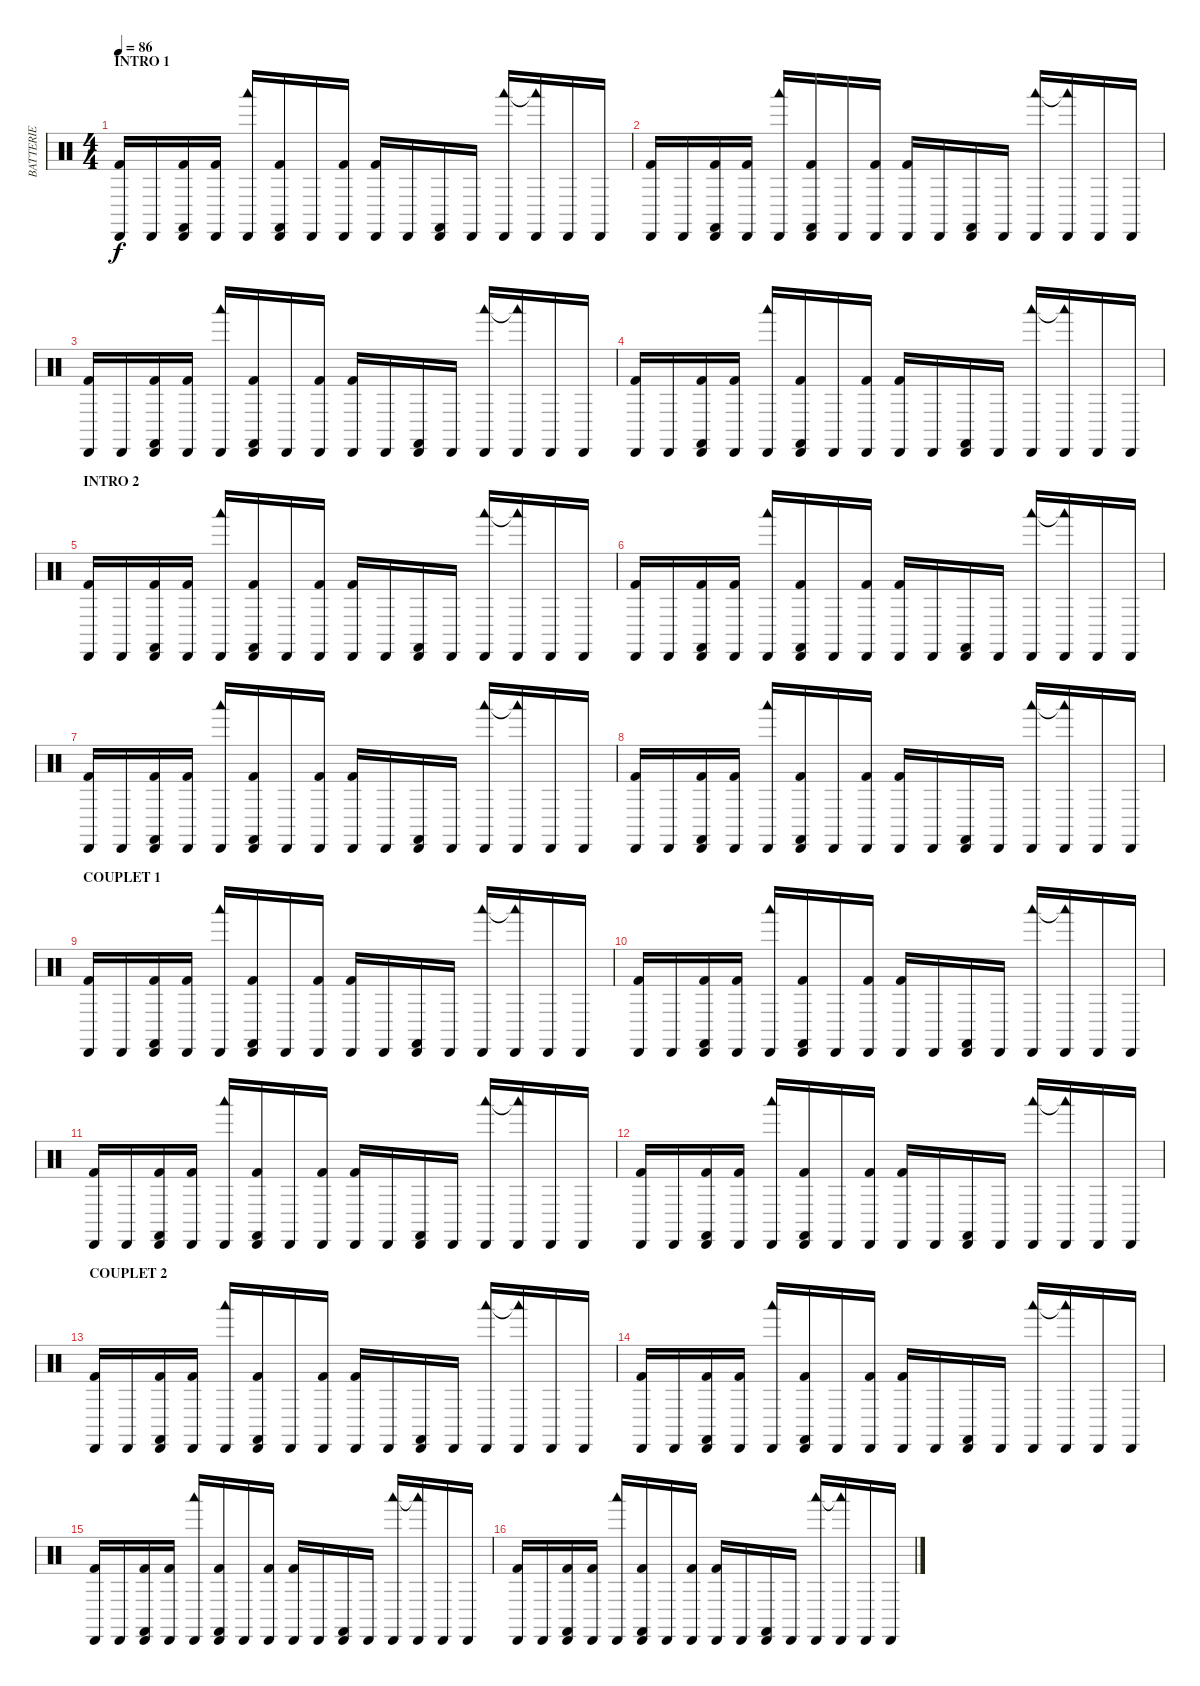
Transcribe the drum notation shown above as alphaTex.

\track ("BATTERIE" "BATTERIE") {instrument percussion}
\staff {score}
\articulation defaults
\ts (4 4)
\section ("" "INTRO 1")
\tempo 86
\clef neutral
\ks c
("Cabasa (hit)" "Kick (hit) 2").16{dy f} "Cabasa (hit)".16 ("Cabasa (hit)" "Castanets (hit)" "Kick (hit) 2").16 ("Cabasa (hit)" "Kick (hit) 2").16 ("Cabasa (hit)" "Woodblock low (hit)").16 ("Cabasa (hit)" "Castanets (hit)" "Kick (hit) 2").16 "Cabasa (hit)".16 ("Cabasa (hit)" "Kick (hit) 2").16 ("Cabasa (hit)" "Kick (hit) 2").16 "Cabasa (hit)".16 ("Cabasa (hit)" "Castanets (hit)").16 "Cabasa (hit)".16 ("Cabasa (hit)" "Woodblock low (hit)").16 ("Cabasa (hit)" "Woodblock low (hit)"{t}).16 "Cabasa (hit)".16 "Cabasa (hit)".16 |
("Cabasa (hit)" "Kick (hit) 2").16 "Cabasa (hit)".16 ("Cabasa (hit)" "Castanets (hit)" "Kick (hit) 2").16 ("Cabasa (hit)" "Kick (hit) 2").16 ("Cabasa (hit)" "Woodblock low (hit)").16 ("Cabasa (hit)" "Castanets (hit)" "Kick (hit) 2").16 "Cabasa (hit)".16 ("Cabasa (hit)" "Kick (hit) 2").16 ("Cabasa (hit)" "Kick (hit) 2").16 "Cabasa (hit)".16 ("Cabasa (hit)" "Castanets (hit)").16 "Cabasa (hit)".16 ("Cabasa (hit)" "Woodblock low (hit)").16 ("Cabasa (hit)" "Woodblock low (hit)"{t}).16 "Cabasa (hit)".16 "Cabasa (hit)".16 |
("Cabasa (hit)" "Kick (hit) 2").16 "Cabasa (hit)".16 ("Cabasa (hit)" "Castanets (hit)" "Kick (hit) 2").16 ("Cabasa (hit)" "Kick (hit) 2").16 ("Cabasa (hit)" "Woodblock low (hit)").16 ("Cabasa (hit)" "Castanets (hit)" "Kick (hit) 2").16 "Cabasa (hit)".16 ("Cabasa (hit)" "Kick (hit) 2").16 ("Cabasa (hit)" "Kick (hit) 2").16 "Cabasa (hit)".16 ("Cabasa (hit)" "Castanets (hit)").16 "Cabasa (hit)".16 ("Cabasa (hit)" "Woodblock low (hit)").16 ("Cabasa (hit)" "Woodblock low (hit)"{t}).16 "Cabasa (hit)".16 "Cabasa (hit)".16 |
("Cabasa (hit)" "Kick (hit) 2").16 "Cabasa (hit)".16 ("Cabasa (hit)" "Castanets (hit)" "Kick (hit) 2").16 ("Cabasa (hit)" "Kick (hit) 2").16 ("Cabasa (hit)" "Woodblock low (hit)").16 ("Cabasa (hit)" "Castanets (hit)" "Kick (hit) 2").16 "Cabasa (hit)".16 ("Cabasa (hit)" "Kick (hit) 2").16 ("Cabasa (hit)" "Kick (hit) 2").16 "Cabasa (hit)".16 ("Cabasa (hit)" "Castanets (hit)").16 "Cabasa (hit)".16 ("Cabasa (hit)" "Woodblock low (hit)").16 ("Cabasa (hit)" "Woodblock low (hit)"{t}).16 "Cabasa (hit)".16 "Cabasa (hit)".16 |
\section ("" "INTRO 2")
("Cabasa (hit)" "Kick (hit) 2").16 "Cabasa (hit)".16 ("Cabasa (hit)" "Castanets (hit)" "Kick (hit) 2").16 ("Cabasa (hit)" "Kick (hit) 2").16 ("Cabasa (hit)" "Woodblock low (hit)").16 ("Cabasa (hit)" "Castanets (hit)" "Kick (hit) 2").16 "Cabasa (hit)".16 ("Cabasa (hit)" "Kick (hit) 2").16 ("Cabasa (hit)" "Kick (hit) 2").16 "Cabasa (hit)".16 ("Cabasa (hit)" "Castanets (hit)").16 "Cabasa (hit)".16 ("Cabasa (hit)" "Woodblock low (hit)").16 ("Cabasa (hit)" "Woodblock low (hit)"{t}).16 "Cabasa (hit)".16 "Cabasa (hit)".16 |
("Cabasa (hit)" "Kick (hit) 2").16 "Cabasa (hit)".16 ("Cabasa (hit)" "Castanets (hit)" "Kick (hit) 2").16 ("Cabasa (hit)" "Kick (hit) 2").16 ("Cabasa (hit)" "Woodblock low (hit)").16 ("Cabasa (hit)" "Castanets (hit)" "Kick (hit) 2").16 "Cabasa (hit)".16 ("Cabasa (hit)" "Kick (hit) 2").16 ("Cabasa (hit)" "Kick (hit) 2").16 "Cabasa (hit)".16 ("Cabasa (hit)" "Castanets (hit)").16 "Cabasa (hit)".16 ("Cabasa (hit)" "Woodblock low (hit)").16 ("Cabasa (hit)" "Woodblock low (hit)"{t}).16 "Cabasa (hit)".16 "Cabasa (hit)".16 |
("Cabasa (hit)" "Kick (hit) 2").16 "Cabasa (hit)".16 ("Cabasa (hit)" "Castanets (hit)" "Kick (hit) 2").16 ("Cabasa (hit)" "Kick (hit) 2").16 ("Cabasa (hit)" "Woodblock low (hit)").16 ("Cabasa (hit)" "Castanets (hit)" "Kick (hit) 2").16 "Cabasa (hit)".16 ("Cabasa (hit)" "Kick (hit) 2").16 ("Cabasa (hit)" "Kick (hit) 2").16 "Cabasa (hit)".16 ("Cabasa (hit)" "Castanets (hit)").16 "Cabasa (hit)".16 ("Cabasa (hit)" "Woodblock low (hit)").16 ("Cabasa (hit)" "Woodblock low (hit)"{t}).16 "Cabasa (hit)".16 "Cabasa (hit)".16 |
("Cabasa (hit)" "Kick (hit) 2").16 "Cabasa (hit)".16 ("Cabasa (hit)" "Castanets (hit)" "Kick (hit) 2").16 ("Cabasa (hit)" "Kick (hit) 2").16 ("Cabasa (hit)" "Woodblock low (hit)").16 ("Cabasa (hit)" "Castanets (hit)" "Kick (hit) 2").16 "Cabasa (hit)".16 ("Cabasa (hit)" "Kick (hit) 2").16 ("Cabasa (hit)" "Kick (hit) 2").16 "Cabasa (hit)".16 ("Cabasa (hit)" "Castanets (hit)").16 "Cabasa (hit)".16 ("Cabasa (hit)" "Woodblock low (hit)").16 ("Cabasa (hit)" "Woodblock low (hit)"{t}).16 "Cabasa (hit)".16 "Cabasa (hit)".16 |
\section ("" "COUPLET 1")
("Cabasa (hit)" "Kick (hit) 2").16 "Cabasa (hit)".16 ("Cabasa (hit)" "Castanets (hit)" "Kick (hit) 2").16 ("Cabasa (hit)" "Kick (hit) 2").16 ("Cabasa (hit)" "Woodblock low (hit)").16 ("Cabasa (hit)" "Castanets (hit)" "Kick (hit) 2").16 "Cabasa (hit)".16 ("Cabasa (hit)" "Kick (hit) 2").16 ("Cabasa (hit)" "Kick (hit) 2").16 "Cabasa (hit)".16 ("Cabasa (hit)" "Castanets (hit)").16 "Cabasa (hit)".16 ("Cabasa (hit)" "Woodblock low (hit)").16 ("Cabasa (hit)" "Woodblock low (hit)"{t}).16 "Cabasa (hit)".16 "Cabasa (hit)".16 |
("Cabasa (hit)" "Kick (hit) 2").16 "Cabasa (hit)".16 ("Cabasa (hit)" "Castanets (hit)" "Kick (hit) 2").16 ("Cabasa (hit)" "Kick (hit) 2").16 ("Cabasa (hit)" "Woodblock low (hit)").16 ("Cabasa (hit)" "Castanets (hit)" "Kick (hit) 2").16 "Cabasa (hit)".16 ("Cabasa (hit)" "Kick (hit) 2").16 ("Cabasa (hit)" "Kick (hit) 2").16 "Cabasa (hit)".16 ("Cabasa (hit)" "Castanets (hit)").16 "Cabasa (hit)".16 ("Cabasa (hit)" "Woodblock low (hit)").16 ("Cabasa (hit)" "Woodblock low (hit)"{t}).16 "Cabasa (hit)".16 "Cabasa (hit)".16 |
("Cabasa (hit)" "Kick (hit) 2").16 "Cabasa (hit)".16 ("Cabasa (hit)" "Castanets (hit)" "Kick (hit) 2").16 ("Cabasa (hit)" "Kick (hit) 2").16 ("Cabasa (hit)" "Woodblock low (hit)").16 ("Cabasa (hit)" "Castanets (hit)" "Kick (hit) 2").16 "Cabasa (hit)".16 ("Cabasa (hit)" "Kick (hit) 2").16 ("Cabasa (hit)" "Kick (hit) 2").16 "Cabasa (hit)".16 ("Cabasa (hit)" "Castanets (hit)").16 "Cabasa (hit)".16 ("Cabasa (hit)" "Woodblock low (hit)").16 ("Cabasa (hit)" "Woodblock low (hit)"{t}).16 "Cabasa (hit)".16 "Cabasa (hit)".16 |
("Cabasa (hit)" "Kick (hit) 2").16 "Cabasa (hit)".16 ("Cabasa (hit)" "Castanets (hit)" "Kick (hit) 2").16 ("Cabasa (hit)" "Kick (hit) 2").16 ("Cabasa (hit)" "Woodblock low (hit)").16 ("Cabasa (hit)" "Castanets (hit)" "Kick (hit) 2").16 "Cabasa (hit)".16 ("Cabasa (hit)" "Kick (hit) 2").16 ("Cabasa (hit)" "Kick (hit) 2").16 "Cabasa (hit)".16 ("Cabasa (hit)" "Castanets (hit)").16 "Cabasa (hit)".16 ("Cabasa (hit)" "Woodblock low (hit)").16 ("Cabasa (hit)" "Woodblock low (hit)"{t}).16 "Cabasa (hit)".16 "Cabasa (hit)".16 |
\section ("" "COUPLET 2")
("Cabasa (hit)" "Kick (hit) 2").16 "Cabasa (hit)".16 ("Cabasa (hit)" "Castanets (hit)" "Kick (hit) 2").16 ("Cabasa (hit)" "Kick (hit) 2").16 ("Cabasa (hit)" "Woodblock low (hit)").16 ("Cabasa (hit)" "Castanets (hit)" "Kick (hit) 2").16 "Cabasa (hit)".16 ("Cabasa (hit)" "Kick (hit) 2").16 ("Cabasa (hit)" "Kick (hit) 2").16 "Cabasa (hit)".16 ("Cabasa (hit)" "Castanets (hit)").16 "Cabasa (hit)".16 ("Cabasa (hit)" "Woodblock low (hit)").16 ("Cabasa (hit)" "Woodblock low (hit)"{t}).16 "Cabasa (hit)".16 "Cabasa (hit)".16 |
("Cabasa (hit)" "Kick (hit) 2").16 "Cabasa (hit)".16 ("Cabasa (hit)" "Castanets (hit)" "Kick (hit) 2").16 ("Cabasa (hit)" "Kick (hit) 2").16 ("Cabasa (hit)" "Woodblock low (hit)").16 ("Cabasa (hit)" "Castanets (hit)" "Kick (hit) 2").16 "Cabasa (hit)".16 ("Cabasa (hit)" "Kick (hit) 2").16 ("Cabasa (hit)" "Kick (hit) 2").16 "Cabasa (hit)".16 ("Cabasa (hit)" "Castanets (hit)").16 "Cabasa (hit)".16 ("Cabasa (hit)" "Woodblock low (hit)").16 ("Cabasa (hit)" "Woodblock low (hit)"{t}).16 "Cabasa (hit)".16 "Cabasa (hit)".16 |
("Cabasa (hit)" "Kick (hit) 2").16 "Cabasa (hit)".16 ("Cabasa (hit)" "Castanets (hit)" "Kick (hit) 2").16 ("Cabasa (hit)" "Kick (hit) 2").16 ("Cabasa (hit)" "Woodblock low (hit)").16 ("Cabasa (hit)" "Castanets (hit)" "Kick (hit) 2").16 "Cabasa (hit)".16 ("Cabasa (hit)" "Kick (hit) 2").16 ("Cabasa (hit)" "Kick (hit) 2").16 "Cabasa (hit)".16 ("Cabasa (hit)" "Castanets (hit)").16 "Cabasa (hit)".16 ("Cabasa (hit)" "Woodblock low (hit)").16 ("Cabasa (hit)" "Woodblock low (hit)"{t}).16 "Cabasa (hit)".16 "Cabasa (hit)".16 |
("Cabasa (hit)" "Kick (hit) 2").16 "Cabasa (hit)".16 ("Cabasa (hit)" "Castanets (hit)" "Kick (hit) 2").16 ("Cabasa (hit)" "Kick (hit) 2").16 ("Cabasa (hit)" "Woodblock low (hit)").16 ("Cabasa (hit)" "Castanets (hit)" "Kick (hit) 2").16 "Cabasa (hit)".16 ("Cabasa (hit)" "Kick (hit) 2").16 ("Cabasa (hit)" "Kick (hit) 2").16 "Cabasa (hit)".16 ("Cabasa (hit)" "Castanets (hit)").16 "Cabasa (hit)".16 ("Cabasa (hit)" "Woodblock low (hit)").16 ("Cabasa (hit)" "Woodblock low (hit)"{t}).16 "Cabasa (hit)".16 "Cabasa (hit)".16
